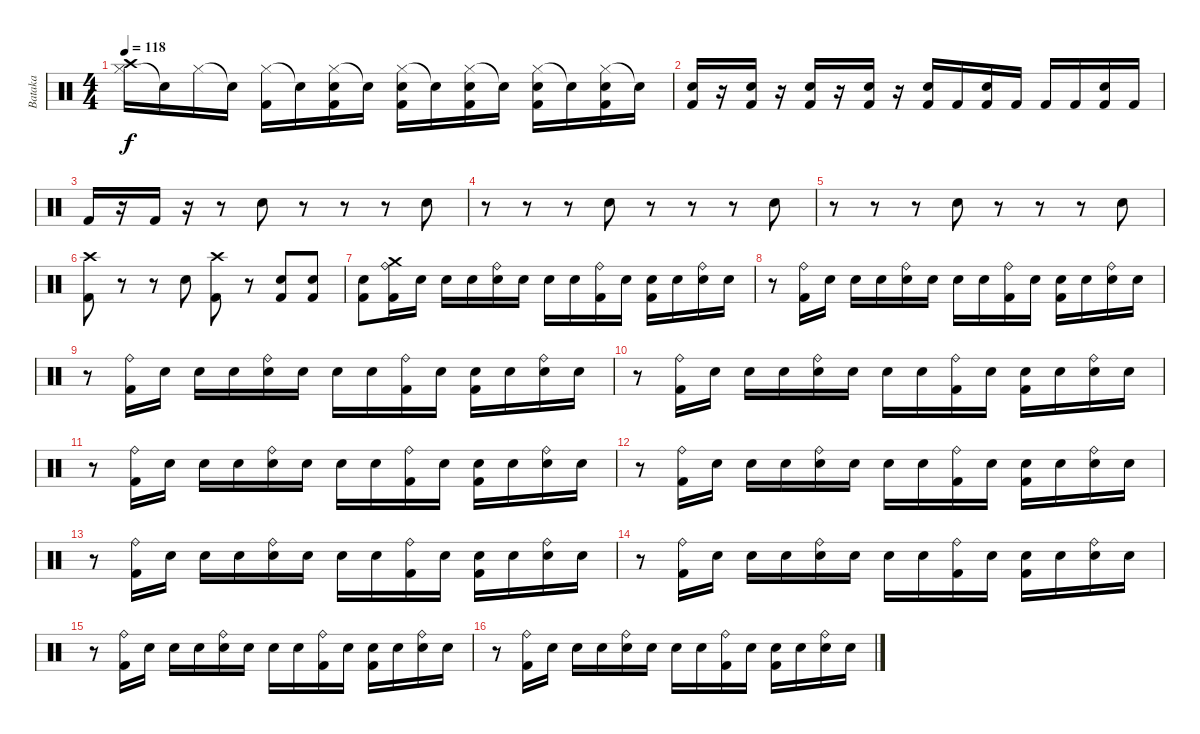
\track ("Bataka" "Bataka") {instrument percussion}
\staff {score}
\articulation defaults
\ts (4 4)
\tempo 118
\clef neutral
\ks c
("Hi-Hat (closed)" "Crash high (hit)").16{dy f} "Snare (hit)"{t}.16 "Hi-Hat (closed)"{x}.16 "Snare (hit)"{t}.16 ("Hi-Hat (closed)"{x} "Kick (hit) 2").16 "Snare (hit)"{t}.16 ("Hi-Hat (closed)"{x} "Kick (hit) 2" "Snare (hit) 2").16 "Snare (hit)"{t}.16 ("Hi-Hat (closed)"{x} "Kick (hit) 2" "Snare (hit) 2").16 "Snare (hit)"{t}.16 ("Hi-Hat (closed)"{x} "Kick (hit) 2" "Snare (hit) 2").16 "Snare (hit)"{t}.16 ("Hi-Hat (closed)"{x} "Kick (hit) 2" "Snare (hit) 2").16 "Snare (hit)"{t}.16 ("Hi-Hat (closed)"{x} "Kick (hit) 2" "Snare (hit) 2").16 "Snare (hit)"{t}.16 |
("Kick (hit) 2" "Snare (hit) 2").16 r.16 ("Kick (hit) 2" "Snare (hit) 2").16 r.16 ("Kick (hit) 2" "Snare (hit) 2").16 r.16 ("Kick (hit) 2" "Snare (hit) 2").16 r.16 ("Kick (hit) 2" "Snare (hit) 2").16 "Kick (hit) 2"{x}.16 ("Kick (hit) 2" "Snare (hit) 2").16 "Kick (hit) 2"{x}.16 "Kick (hit) 2".16 "Kick (hit) 2"{x}.16 ("Kick (hit) 2" "Snare (hit) 2").16 "Kick (hit) 2"{x}.16 |
"Kick (hit) 2".16 r.16 "Kick (hit) 2".16 r.16 r.8 "Snare (hit) 2".8 r.8 r.8 r.8 "Snare (hit) 2".8 |
r.8 r.8 r.8 "Snare (hit) 2".8 r.8 r.8 r.8 "Snare (hit) 2".8 |
r.8 r.8 r.8 "Snare (hit) 2".8 r.8 r.8 r.8 "Snare (hit) 2".8 |
("Crash high (hit)" "Kick (hit) 2").8 r.8 r.8 "Snare (hit) 2".8 ("Crash high (hit)" "Kick (hit) 2").8 r.8 ("Snare (hit) 2" "Kick (hit) 2").8 ("Snare (hit) 2" "Kick (hit) 2").8 |
("Snare (hit) 2" "Kick (hit) 2").8 ("Ride (bell)" "Kick (hit) 2" "Crash medium (hit)").16 "Snare (hit)"{x}.16 "Snare (hit)"{x}.16 "Snare (hit)"{x}.16 ("Ride (bell)" "Snare (hit) 2").16 "Snare (hit)"{x}.16 "Snare (hit)"{x}.16 "Snare (hit)"{x}.16 ("Ride (bell)" "Kick (hit) 2").16 "Snare (hit)"{x}.16 ("Snare (hit)"{x} "Kick (hit) 2").16 "Snare (hit)"{x}.16 ("Ride (bell)" "Snare (hit) 2").16 "Snare (hit)"{x}.16 |
r.8 ("Ride (bell)" "Kick (hit) 2").16 "Snare (hit)"{x}.16 "Snare (hit)"{x}.16 "Snare (hit)"{x}.16 ("Ride (bell)" "Snare (hit) 2").16 "Snare (hit)"{x}.16 "Snare (hit)"{x}.16 "Snare (hit)"{x}.16 ("Ride (bell)" "Kick (hit) 2").16 "Snare (hit)"{x}.16 ("Snare (hit)"{x} "Kick (hit) 2").16 "Snare (hit)"{x}.16 ("Ride (bell)" "Snare (hit) 2").16 "Snare (hit)"{x}.16 |
r.8 ("Ride (bell)" "Kick (hit) 2").16 "Snare (hit)"{x}.16 "Snare (hit)"{x}.16 "Snare (hit)"{x}.16 ("Ride (bell)" "Snare (hit) 2").16 "Snare (hit)"{x}.16 "Snare (hit)"{x}.16 "Snare (hit)"{x}.16 ("Ride (bell)" "Kick (hit) 2").16 "Snare (hit)"{x}.16 ("Snare (hit)"{x} "Kick (hit) 2").16 "Snare (hit)"{x}.16 ("Ride (bell)" "Snare (hit) 2").16 "Snare (hit)"{x}.16 |
r.8 ("Ride (bell)" "Kick (hit) 2").16 "Snare (hit)"{x}.16 "Snare (hit)"{x}.16 "Snare (hit)"{x}.16 ("Ride (bell)" "Snare (hit) 2").16 "Snare (hit)"{x}.16 "Snare (hit)"{x}.16 "Snare (hit)"{x}.16 ("Ride (bell)" "Kick (hit) 2").16 "Snare (hit)"{x}.16 ("Snare (hit)"{x} "Kick (hit) 2").16 "Snare (hit)"{x}.16 ("Ride (bell)" "Snare (hit) 2").16 "Snare (hit)"{x}.16 |
r.8 ("Ride (bell)" "Kick (hit) 2").16 "Snare (hit)"{x}.16 "Snare (hit)"{x}.16 "Snare (hit)"{x}.16 ("Ride (bell)" "Snare (hit) 2").16 "Snare (hit)"{x}.16 "Snare (hit)"{x}.16 "Snare (hit)"{x}.16 ("Ride (bell)" "Kick (hit) 2").16 "Snare (hit)"{x}.16 ("Snare (hit)"{x} "Kick (hit) 2").16 "Snare (hit)"{x}.16 ("Ride (bell)" "Snare (hit) 2").16 "Snare (hit)"{x}.16 |
r.8 ("Ride (bell)" "Kick (hit) 2").16 "Snare (hit)"{x}.16 "Snare (hit)"{x}.16 "Snare (hit)"{x}.16 ("Ride (bell)" "Snare (hit) 2").16 "Snare (hit)"{x}.16 "Snare (hit)"{x}.16 "Snare (hit)"{x}.16 ("Ride (bell)" "Kick (hit) 2").16 "Snare (hit)"{x}.16 ("Snare (hit)"{x} "Kick (hit) 2").16 "Snare (hit)"{x}.16 ("Ride (bell)" "Snare (hit) 2").16 "Snare (hit)"{x}.16 |
r.8 ("Ride (bell)" "Kick (hit) 2").16 "Snare (hit)"{x}.16 "Snare (hit)"{x}.16 "Snare (hit)"{x}.16 ("Ride (bell)" "Snare (hit) 2").16 "Snare (hit)"{x}.16 "Snare (hit)"{x}.16 "Snare (hit)"{x}.16 ("Ride (bell)" "Kick (hit) 2").16 "Snare (hit)"{x}.16 ("Snare (hit)"{x} "Kick (hit) 2").16 "Snare (hit)"{x}.16 ("Ride (bell)" "Snare (hit) 2").16 "Snare (hit)"{x}.16 |
r.8 ("Ride (bell)" "Kick (hit) 2").16 "Snare (hit)"{x}.16 "Snare (hit)"{x}.16 "Snare (hit)"{x}.16 ("Ride (bell)" "Snare (hit) 2").16 "Snare (hit)"{x}.16 "Snare (hit)"{x}.16 "Snare (hit)"{x}.16 ("Ride (bell)" "Kick (hit) 2").16 "Snare (hit)"{x}.16 ("Snare (hit)"{x} "Kick (hit) 2").16 "Snare (hit)"{x}.16 ("Ride (bell)" "Snare (hit) 2").16 "Snare (hit)"{x}.16 |
r.8 ("Ride (bell)" "Kick (hit) 2").16 "Snare (hit)"{x}.16 "Snare (hit)"{x}.16 "Snare (hit)"{x}.16 ("Ride (bell)" "Snare (hit) 2").16 "Snare (hit)"{x}.16 "Snare (hit)"{x}.16 "Snare (hit)"{x}.16 ("Ride (bell)" "Kick (hit) 2").16 "Snare (hit)"{x}.16 ("Snare (hit)"{x} "Kick (hit) 2").16 "Snare (hit)"{x}.16 ("Ride (bell)" "Snare (hit) 2").16 "Snare (hit)"{x}.16 |
r.8 ("Ride (bell)" "Kick (hit) 2").16 "Snare (hit)"{x}.16 "Snare (hit)"{x}.16 "Snare (hit)"{x}.16 ("Ride (bell)" "Snare (hit) 2").16 "Snare (hit)"{x}.16 "Snare (hit)"{x}.16 "Snare (hit)"{x}.16 ("Ride (bell)" "Kick (hit) 2").16 "Snare (hit)"{x}.16 ("Snare (hit)"{x} "Kick (hit) 2").16 "Snare (hit)"{x}.16 ("Ride (bell)" "Snare (hit) 2").16 "Snare (hit)"{x}.16
